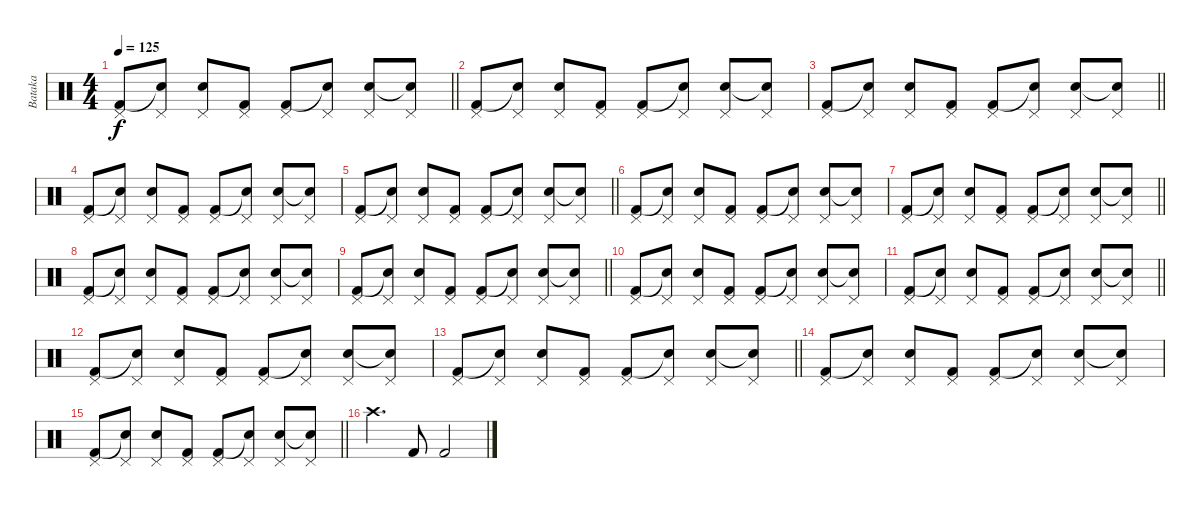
\track ("Bataka" "Bataka") {instrument percussion}
\staff {score}
\articulation defaults
\ts (4 4)
\tempo 125
\clef neutral
\barLineRight lightlight
\ks c
("Pedal Hi-Hat (hit)" "Kick (hit) 2").8{dy f} ("Pedal Hi-Hat (hit)" "Snare (hit)"{t}).8 ("Pedal Hi-Hat (hit)" "Electric Snare (hit)").8 ("Pedal Hi-Hat (hit)" "Kick (hit) 2").8 ("Pedal Hi-Hat (hit)" "Kick (hit) 2").8 ("Pedal Hi-Hat (hit)" "Snare (hit)"{t}).8 ("Pedal Hi-Hat (hit)" "Electric Snare (hit)").8 ("Pedal Hi-Hat (hit)" "Snare (hit)"{t}).8 |
("Pedal Hi-Hat (hit)" "Kick (hit) 2").8 ("Pedal Hi-Hat (hit)" "Snare (hit)"{t}).8 ("Pedal Hi-Hat (hit)" "Electric Snare (hit)").8 ("Pedal Hi-Hat (hit)" "Kick (hit) 2").8 ("Pedal Hi-Hat (hit)" "Kick (hit) 2").8 ("Pedal Hi-Hat (hit)" "Snare (hit)"{t}).8 ("Pedal Hi-Hat (hit)" "Electric Snare (hit)").8 ("Pedal Hi-Hat (hit)" "Snare (hit)"{t}).8 |
\barLineRight lightlight
("Pedal Hi-Hat (hit)" "Kick (hit) 2").8 ("Pedal Hi-Hat (hit)" "Snare (hit)"{t}).8 ("Pedal Hi-Hat (hit)" "Electric Snare (hit)").8 ("Pedal Hi-Hat (hit)" "Kick (hit) 2").8 ("Pedal Hi-Hat (hit)" "Kick (hit) 2").8 ("Pedal Hi-Hat (hit)" "Snare (hit)"{t}).8 ("Pedal Hi-Hat (hit)" "Electric Snare (hit)").8 ("Pedal Hi-Hat (hit)" "Snare (hit)"{t}).8 |
("Pedal Hi-Hat (hit)" "Kick (hit) 2").8 ("Pedal Hi-Hat (hit)" "Snare (hit)"{t}).8 ("Pedal Hi-Hat (hit)" "Electric Snare (hit)").8 ("Pedal Hi-Hat (hit)" "Kick (hit) 2").8 ("Pedal Hi-Hat (hit)" "Kick (hit) 2").8 ("Pedal Hi-Hat (hit)" "Snare (hit)"{t}).8 ("Pedal Hi-Hat (hit)" "Electric Snare (hit)").8 ("Pedal Hi-Hat (hit)" "Snare (hit)"{t}).8 |
\barLineRight lightlight
("Pedal Hi-Hat (hit)" "Kick (hit) 2").8 ("Pedal Hi-Hat (hit)" "Snare (hit)"{t}).8 ("Pedal Hi-Hat (hit)" "Electric Snare (hit)").8 ("Pedal Hi-Hat (hit)" "Kick (hit) 2").8 ("Pedal Hi-Hat (hit)" "Kick (hit) 2").8 ("Pedal Hi-Hat (hit)" "Snare (hit)"{t}).8 ("Pedal Hi-Hat (hit)" "Electric Snare (hit)").8 ("Pedal Hi-Hat (hit)" "Snare (hit)"{t}).8 |
("Pedal Hi-Hat (hit)" "Kick (hit) 2").8 ("Pedal Hi-Hat (hit)" "Snare (hit)"{t}).8 ("Pedal Hi-Hat (hit)" "Electric Snare (hit)").8 ("Pedal Hi-Hat (hit)" "Kick (hit) 2").8 ("Pedal Hi-Hat (hit)" "Kick (hit) 2").8 ("Pedal Hi-Hat (hit)" "Snare (hit)"{t}).8 ("Pedal Hi-Hat (hit)" "Electric Snare (hit)").8 ("Pedal Hi-Hat (hit)" "Snare (hit)"{t}).8 |
\barLineRight lightlight
("Pedal Hi-Hat (hit)" "Kick (hit) 2").8 ("Pedal Hi-Hat (hit)" "Snare (hit)"{t}).8 ("Pedal Hi-Hat (hit)" "Electric Snare (hit)").8 ("Pedal Hi-Hat (hit)" "Kick (hit) 2").8 ("Pedal Hi-Hat (hit)" "Kick (hit) 2").8 ("Pedal Hi-Hat (hit)" "Snare (hit)"{t}).8 ("Pedal Hi-Hat (hit)" "Electric Snare (hit)").8 ("Pedal Hi-Hat (hit)" "Snare (hit)"{t}).8 |
("Pedal Hi-Hat (hit)" "Kick (hit) 2").8 ("Pedal Hi-Hat (hit)" "Snare (hit)"{t}).8 ("Pedal Hi-Hat (hit)" "Electric Snare (hit)").8 ("Pedal Hi-Hat (hit)" "Kick (hit) 2").8 ("Pedal Hi-Hat (hit)" "Kick (hit) 2").8 ("Pedal Hi-Hat (hit)" "Snare (hit)"{t}).8 ("Pedal Hi-Hat (hit)" "Electric Snare (hit)").8 ("Pedal Hi-Hat (hit)" "Snare (hit)"{t}).8 |
\barLineRight lightlight
("Pedal Hi-Hat (hit)" "Kick (hit) 2").8 ("Pedal Hi-Hat (hit)" "Snare (hit)"{t}).8 ("Pedal Hi-Hat (hit)" "Electric Snare (hit)").8 ("Pedal Hi-Hat (hit)" "Kick (hit) 2").8 ("Pedal Hi-Hat (hit)" "Kick (hit) 2").8 ("Pedal Hi-Hat (hit)" "Snare (hit)"{t}).8 ("Pedal Hi-Hat (hit)" "Electric Snare (hit)").8 ("Pedal Hi-Hat (hit)" "Snare (hit)"{t}).8 |
("Pedal Hi-Hat (hit)" "Kick (hit) 2").8 ("Pedal Hi-Hat (hit)" "Snare (hit)"{t}).8 ("Pedal Hi-Hat (hit)" "Electric Snare (hit)").8 ("Pedal Hi-Hat (hit)" "Kick (hit) 2").8 ("Pedal Hi-Hat (hit)" "Kick (hit) 2").8 ("Pedal Hi-Hat (hit)" "Snare (hit)"{t}).8 ("Pedal Hi-Hat (hit)" "Electric Snare (hit)").8 ("Pedal Hi-Hat (hit)" "Snare (hit)"{t}).8 |
\barLineRight lightlight
("Pedal Hi-Hat (hit)" "Kick (hit) 2").8 ("Pedal Hi-Hat (hit)" "Snare (hit)"{t}).8 ("Pedal Hi-Hat (hit)" "Electric Snare (hit)").8 ("Pedal Hi-Hat (hit)" "Kick (hit) 2").8 ("Pedal Hi-Hat (hit)" "Kick (hit) 2").8 ("Pedal Hi-Hat (hit)" "Snare (hit)"{t}).8 ("Pedal Hi-Hat (hit)" "Electric Snare (hit)").8 ("Pedal Hi-Hat (hit)" "Snare (hit)"{t}).8 |
("Pedal Hi-Hat (hit)" "Kick (hit) 2").8 ("Pedal Hi-Hat (hit)" "Snare (hit)"{t}).8 ("Pedal Hi-Hat (hit)" "Electric Snare (hit)").8 ("Pedal Hi-Hat (hit)" "Kick (hit) 2").8 ("Pedal Hi-Hat (hit)" "Kick (hit) 2").8 ("Pedal Hi-Hat (hit)" "Snare (hit)"{t}).8 ("Pedal Hi-Hat (hit)" "Electric Snare (hit)").8 ("Pedal Hi-Hat (hit)" "Snare (hit)"{t}).8 |
\barLineRight lightlight
("Pedal Hi-Hat (hit)" "Kick (hit) 2").8 ("Pedal Hi-Hat (hit)" "Snare (hit)"{t}).8 ("Pedal Hi-Hat (hit)" "Electric Snare (hit)").8 ("Pedal Hi-Hat (hit)" "Kick (hit) 2").8 ("Pedal Hi-Hat (hit)" "Kick (hit) 2").8 ("Pedal Hi-Hat (hit)" "Snare (hit)"{t}).8 ("Pedal Hi-Hat (hit)" "Electric Snare (hit)").8 ("Pedal Hi-Hat (hit)" "Snare (hit)"{t}).8 |
("Pedal Hi-Hat (hit)" "Kick (hit) 2").8 ("Pedal Hi-Hat (hit)" "Snare (hit)"{t}).8 ("Pedal Hi-Hat (hit)" "Electric Snare (hit)").8 ("Pedal Hi-Hat (hit)" "Kick (hit) 2").8 ("Pedal Hi-Hat (hit)" "Kick (hit) 2").8 ("Pedal Hi-Hat (hit)" "Snare (hit)"{t}).8 ("Pedal Hi-Hat (hit)" "Electric Snare (hit)").8 ("Pedal Hi-Hat (hit)" "Snare (hit)"{t}).8 |
\barLineRight lightlight
("Pedal Hi-Hat (hit)" "Kick (hit) 2").8 ("Pedal Hi-Hat (hit)" "Snare (hit)"{t}).8 ("Pedal Hi-Hat (hit)" "Electric Snare (hit)").8 ("Pedal Hi-Hat (hit)" "Kick (hit) 2").8 ("Pedal Hi-Hat (hit)" "Kick (hit) 2").8 ("Pedal Hi-Hat (hit)" "Snare (hit)"{t}).8 ("Pedal Hi-Hat (hit)" "Electric Snare (hit)").8 ("Pedal Hi-Hat (hit)" "Snare (hit)"{t}).8 |
"Crash high (hit)".4{d} "Kick (hit) 2".8 "Kick (hit) 2".2
